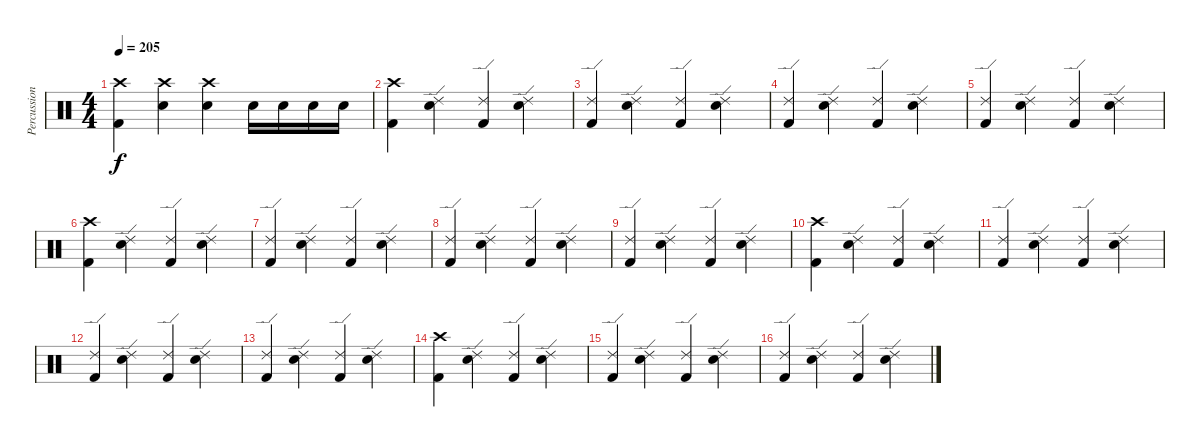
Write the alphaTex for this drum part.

\track ("Percussion" "Percussion") {instrument percussion}
\staff {score}
\articulation defaults
\ts (4 4)
\tempo 205
\clef neutral
\ks c
("Crash high (hit)" "Kick (hit) 2").4{dy f} ("Crash high (hit)" "Electric Snare (hit)").4 ("Crash high (hit)" "Electric Snare (hit)").4 "Electric Snare (hit)".16 "Electric Snare (hit)".16 "Electric Snare (hit)".16 "Electric Snare (hit)".16 |
("Crash high (hit)" "Kick (hit) 2").4 ("Ride (edge) 2" "Electric Snare (hit)").4 ("Ride (edge) 2" "Kick (hit) 2").4 ("Ride (edge) 2" "Electric Snare (hit)").4 |
("Ride (edge) 2" "Kick (hit) 2").4 ("Ride (edge) 2" "Electric Snare (hit)").4 ("Ride (edge) 2" "Kick (hit) 2").4 ("Ride (edge) 2" "Electric Snare (hit)").4 |
("Ride (edge) 2" "Kick (hit) 2").4 ("Ride (edge) 2" "Electric Snare (hit)").4 ("Ride (edge) 2" "Kick (hit) 2").4 ("Ride (edge) 2" "Electric Snare (hit)").4 |
("Ride (edge) 2" "Kick (hit) 2").4 ("Ride (edge) 2" "Electric Snare (hit)").4 ("Ride (edge) 2" "Kick (hit) 2").4 ("Ride (edge) 2" "Electric Snare (hit)").4 |
("Crash high (hit)" "Kick (hit) 2").4 ("Ride (edge) 2" "Electric Snare (hit)").4 ("Ride (edge) 2" "Kick (hit) 2").4 ("Ride (edge) 2" "Electric Snare (hit)").4 |
("Ride (edge) 2" "Kick (hit) 2").4 ("Ride (edge) 2" "Electric Snare (hit)").4 ("Ride (edge) 2" "Kick (hit) 2").4 ("Ride (edge) 2" "Electric Snare (hit)").4 |
("Ride (edge) 2" "Kick (hit) 2").4 ("Ride (edge) 2" "Electric Snare (hit)").4 ("Ride (edge) 2" "Kick (hit) 2").4 ("Ride (edge) 2" "Electric Snare (hit)").4 |
("Ride (edge) 2" "Kick (hit) 2").4 ("Ride (edge) 2" "Electric Snare (hit)").4 ("Ride (edge) 2" "Kick (hit) 2").4 ("Ride (edge) 2" "Electric Snare (hit)").4 |
("Crash high (hit)" "Kick (hit) 2").4 ("Ride (edge) 2" "Electric Snare (hit)").4 ("Ride (edge) 2" "Kick (hit) 2").4 ("Ride (edge) 2" "Electric Snare (hit)").4 |
("Ride (edge) 2" "Kick (hit) 2").4 ("Ride (edge) 2" "Electric Snare (hit)").4 ("Ride (edge) 2" "Kick (hit) 2").4 ("Ride (edge) 2" "Electric Snare (hit)").4 |
("Ride (edge) 2" "Kick (hit) 2").4 ("Ride (edge) 2" "Electric Snare (hit)").4 ("Ride (edge) 2" "Kick (hit) 2").4 ("Ride (edge) 2" "Electric Snare (hit)").4 |
("Ride (edge) 2" "Kick (hit) 2").4 ("Ride (edge) 2" "Electric Snare (hit)").4 ("Ride (edge) 2" "Kick (hit) 2").4 ("Ride (edge) 2" "Electric Snare (hit)").4 |
("Crash high (hit)" "Kick (hit) 2").4 ("Ride (edge) 2" "Electric Snare (hit)").4 ("Ride (edge) 2" "Kick (hit) 2").4 ("Ride (edge) 2" "Electric Snare (hit)").4 |
("Ride (edge) 2" "Kick (hit) 2").4 ("Ride (edge) 2" "Electric Snare (hit)").4 ("Ride (edge) 2" "Kick (hit) 2").4 ("Ride (edge) 2" "Electric Snare (hit)").4 |
("Ride (edge) 2" "Kick (hit) 2").4 ("Ride (edge) 2" "Electric Snare (hit)").4 ("Ride (edge) 2" "Kick (hit) 2").4 ("Ride (edge) 2" "Electric Snare (hit)").4
